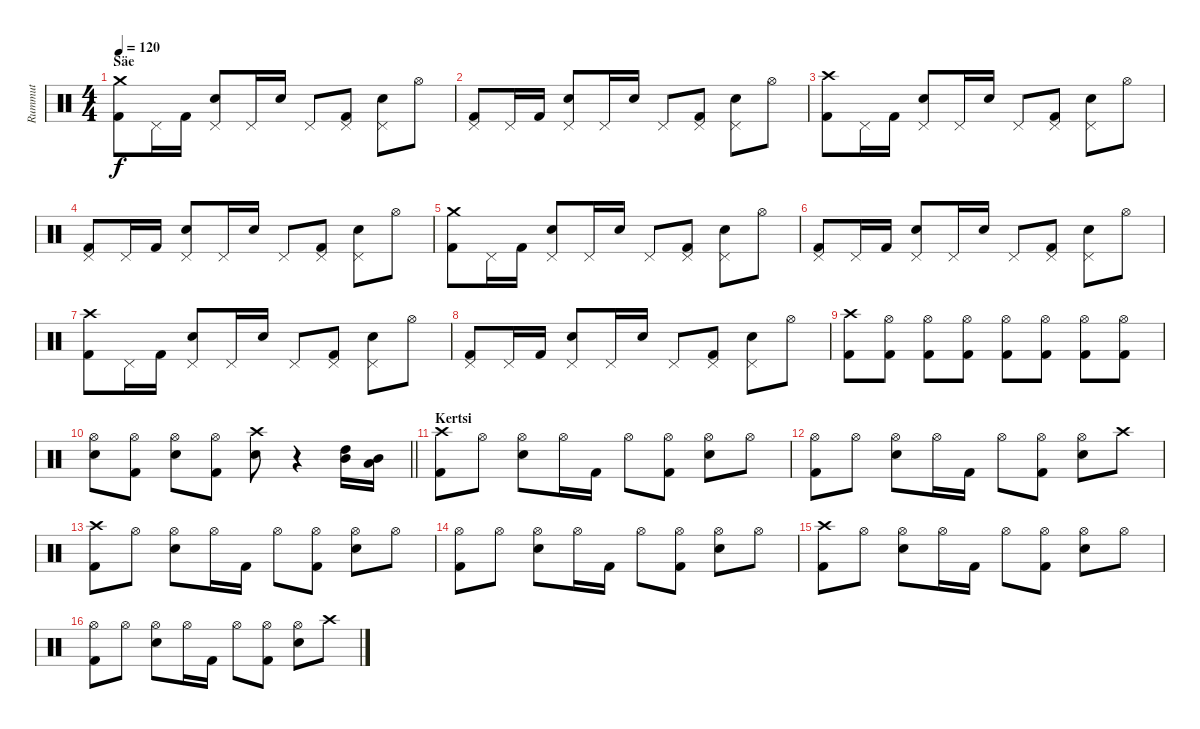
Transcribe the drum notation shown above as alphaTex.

\track ("Rummut" "Rummut") {instrument percussion}
\staff {score}
\articulation defaults
\ts (4 4)
\section ("" "Säe")
\tempo 120
\clef neutral
\ks c
("Crash medium (hit)" "Kick (hit) 2").8{dy f} "Pedal Hi-Hat (hit)".16 "Kick (hit) 2".16 ("Pedal Hi-Hat (hit)" "Electric Snare (hit)").8 "Pedal Hi-Hat (hit)".16 "Electric Snare (hit)".16 "Pedal Hi-Hat (hit)".8 ("Pedal Hi-Hat (hit)" "Kick (hit) 2").8 ("Pedal Hi-Hat (hit)" "Electric Snare (hit)").8 "Hi-Hat (open)".8 |
("Pedal Hi-Hat (hit)" "Kick (hit) 2").8 "Pedal Hi-Hat (hit)".16 "Kick (hit) 2".16 ("Pedal Hi-Hat (hit)" "Electric Snare (hit)").8 "Pedal Hi-Hat (hit)".16 "Electric Snare (hit)".16 "Pedal Hi-Hat (hit)".8 ("Pedal Hi-Hat (hit)" "Kick (hit) 2").8 ("Pedal Hi-Hat (hit)" "Electric Snare (hit)").8 "Hi-Hat (open)".8 |
("Crash high (hit)" "Kick (hit) 2").8 "Pedal Hi-Hat (hit)".16 "Kick (hit) 2".16 ("Pedal Hi-Hat (hit)" "Electric Snare (hit)").8 "Pedal Hi-Hat (hit)".16 "Electric Snare (hit)".16 "Pedal Hi-Hat (hit)".8 ("Pedal Hi-Hat (hit)" "Kick (hit) 2").8 ("Pedal Hi-Hat (hit)" "Electric Snare (hit)").8 "Hi-Hat (open)".8 |
("Pedal Hi-Hat (hit)" "Kick (hit) 2").8 "Pedal Hi-Hat (hit)".16 "Kick (hit) 2".16 ("Pedal Hi-Hat (hit)" "Electric Snare (hit)").8 "Pedal Hi-Hat (hit)".16 "Electric Snare (hit)".16 "Pedal Hi-Hat (hit)".8 ("Pedal Hi-Hat (hit)" "Kick (hit) 2").8 ("Pedal Hi-Hat (hit)" "Electric Snare (hit)").8 "Hi-Hat (open)".8 |
("Crash medium (hit)" "Kick (hit) 2").8 "Pedal Hi-Hat (hit)".16 "Kick (hit) 2".16 ("Pedal Hi-Hat (hit)" "Electric Snare (hit)").8 "Pedal Hi-Hat (hit)".16 "Electric Snare (hit)".16 "Pedal Hi-Hat (hit)".8 ("Pedal Hi-Hat (hit)" "Kick (hit) 2").8 ("Pedal Hi-Hat (hit)" "Electric Snare (hit)").8 "Hi-Hat (open)".8 |
("Pedal Hi-Hat (hit)" "Kick (hit) 2").8 "Pedal Hi-Hat (hit)".16 "Kick (hit) 2".16 ("Pedal Hi-Hat (hit)" "Electric Snare (hit)").8 "Pedal Hi-Hat (hit)".16 "Electric Snare (hit)".16 "Pedal Hi-Hat (hit)".8 ("Pedal Hi-Hat (hit)" "Kick (hit) 2").8 ("Pedal Hi-Hat (hit)" "Electric Snare (hit)").8 "Hi-Hat (open)".8 |
("Crash high (hit)" "Kick (hit) 2").8 "Pedal Hi-Hat (hit)".16 "Kick (hit) 2".16 ("Pedal Hi-Hat (hit)" "Electric Snare (hit)").8 "Pedal Hi-Hat (hit)".16 "Electric Snare (hit)".16 "Pedal Hi-Hat (hit)".8 ("Pedal Hi-Hat (hit)" "Kick (hit) 2").8 ("Pedal Hi-Hat (hit)" "Electric Snare (hit)").8 "Hi-Hat (open)".8 |
("Pedal Hi-Hat (hit)" "Kick (hit) 2").8 "Pedal Hi-Hat (hit)".16 "Kick (hit) 2".16 ("Pedal Hi-Hat (hit)" "Electric Snare (hit)").8 "Pedal Hi-Hat (hit)".16 "Electric Snare (hit)".16 "Pedal Hi-Hat (hit)".8 ("Pedal Hi-Hat (hit)" "Kick (hit) 2").8 ("Pedal Hi-Hat (hit)" "Electric Snare (hit)").8 "Hi-Hat (open)".8 |
("Crash high (hit)" "Kick (hit) 2").8 ("Hi-Hat (open)" "Kick (hit) 2").8 ("Hi-Hat (open)" "Kick (hit) 2").8 ("Hi-Hat (open)" "Kick (hit) 2").8 ("Hi-Hat (open)" "Kick (hit) 2").8 ("Hi-Hat (open)" "Kick (hit) 2").8 ("Hi-Hat (open)" "Kick (hit) 2").8 ("Hi-Hat (open)" "Kick (hit) 2").8 |
\barLineRight lightlight
("Hi-Hat (open)" "Snare (hit) 2").8 ("Hi-Hat (open)" "Kick (hit) 2").8 ("Hi-Hat (open)" "Snare (hit) 2").8 ("Hi-Hat (open)" "Kick (hit) 2").8 ("Crash high (hit)" "Snare (hit) 2").8 r.4 ("High Tom (hit)" "Mid Tom (hit)").16 ("Low Tom (hit)" "Mid Tom (hit)").16 |
\section ("" "Kertsi")
("Crash high (hit)" "Kick (hit) 2").8 "Hi-Hat (open)".8 ("Hi-Hat (open)" "Snare (hit) 2").8 "Hi-Hat (open)".16 "Kick (hit) 2".16 "Hi-Hat (open)".8 ("Hi-Hat (open)" "Kick (hit) 2").8 ("Hi-Hat (open)" "Snare (hit) 2").8 "Hi-Hat (open)".8 |
("Hi-Hat (open)" "Kick (hit) 2").8 "Hi-Hat (open)".8 ("Hi-Hat (open)" "Snare (hit) 2").8 "Hi-Hat (open)".16 "Kick (hit) 2".16 "Hi-Hat (open)".8 ("Hi-Hat (open)" "Kick (hit) 2").8 ("Hi-Hat (open)" "Snare (hit) 2").8 "Crash high (hit)".8 |
("Crash high (hit)" "Kick (hit) 2").8 "Hi-Hat (open)".8 ("Hi-Hat (open)" "Snare (hit) 2").8 "Hi-Hat (open)".16 "Kick (hit) 2".16 "Hi-Hat (open)".8 ("Hi-Hat (open)" "Kick (hit) 2").8 ("Hi-Hat (open)" "Snare (hit) 2").8 "Hi-Hat (open)".8 |
("Hi-Hat (open)" "Kick (hit) 2").8 "Hi-Hat (open)".8 ("Hi-Hat (open)" "Snare (hit) 2").8 "Hi-Hat (open)".16 "Kick (hit) 2".16 "Hi-Hat (open)".8 ("Hi-Hat (open)" "Kick (hit) 2").8 ("Hi-Hat (open)" "Snare (hit) 2").8 "Hi-Hat (open)".8 |
("Crash high (hit)" "Kick (hit) 2").8 "Hi-Hat (open)".8 ("Hi-Hat (open)" "Snare (hit) 2").8 "Hi-Hat (open)".16 "Kick (hit) 2".16 "Hi-Hat (open)".8 ("Hi-Hat (open)" "Kick (hit) 2").8 ("Hi-Hat (open)" "Snare (hit) 2").8 "Hi-Hat (open)".8 |
("Hi-Hat (open)" "Kick (hit) 2").8 "Hi-Hat (open)".8 ("Hi-Hat (open)" "Snare (hit) 2").8 "Hi-Hat (open)".16 "Kick (hit) 2".16 "Hi-Hat (open)".8 ("Hi-Hat (open)" "Kick (hit) 2").8 ("Hi-Hat (open)" "Snare (hit) 2").8 "Crash high (hit)".8
